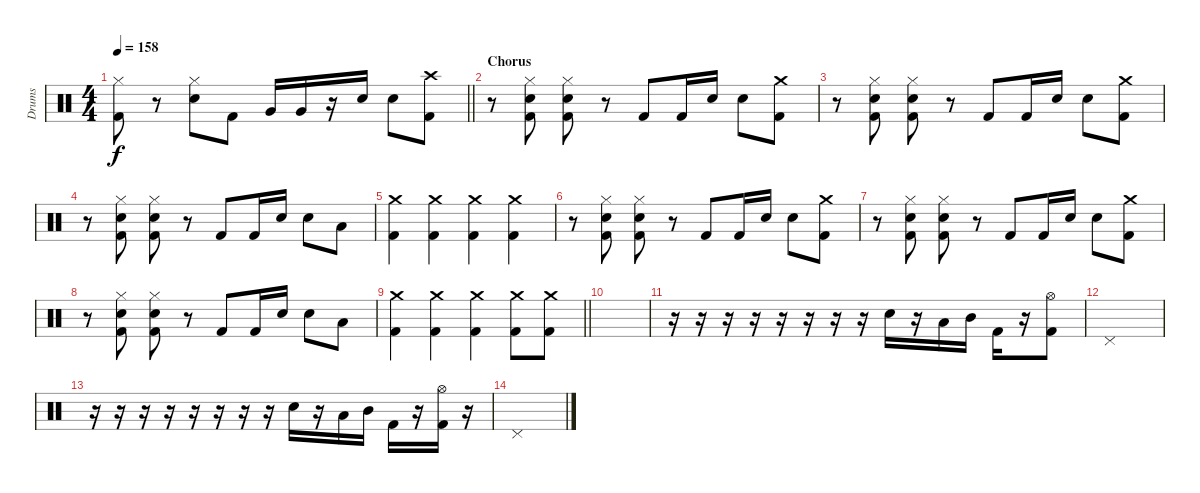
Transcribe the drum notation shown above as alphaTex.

\track ("Drums" "Drums") {instrument percussion}
\staff {score}
\articulation defaults
\ts (4 4)
\tempo 158
\clef neutral
\barLineRight lightlight
\ks c
("Hi-Hat (closed)" "Kick (hit) 2").8{dy f} r.8 ("Hi-Hat (closed)" "Snare (hit) 2").8 "Kick (hit) 2".8 "Very Low Tom (hit)".16 "Very Low Tom (hit)".16 r.16 "Snare (hit) 2".16 "Snare (hit) 2".8 ("Crash high (hit)" "Kick (hit) 2").8 |
\section ("" "Chorus")
r.8 ("Hi-Hat (closed)" "Snare (hit) 2" "Kick (hit) 2").8 ("Hi-Hat (closed)" "Snare (hit) 2" "Kick (hit) 2").8 r.8 "Kick (hit) 2".8 "Kick (hit) 2".16 "Snare (hit) 2".16 "Snare (hit) 2".8 ("Crash medium (hit)" "Kick (hit) 2").8 |
r.8 ("Hi-Hat (closed)" "Snare (hit) 2" "Kick (hit) 2").8 ("Hi-Hat (closed)" "Snare (hit) 2" "Kick (hit) 2").8 r.8 "Kick (hit) 2".8 "Kick (hit) 2".16 "Snare (hit) 2".16 "Snare (hit) 2".8 ("Crash medium (hit)" "Kick (hit) 2").8 |
r.8 ("Hi-Hat (closed)" "Snare (hit) 2" "Kick (hit) 2").8 ("Hi-Hat (closed)" "Snare (hit) 2" "Kick (hit) 2").8 r.8 "Kick (hit) 2".8 "Kick (hit) 2".16 "Snare (hit) 2".16 "Snare (hit) 2".8 "Low Tom (hit)".8 |
("Crash medium (hit)" "Kick (hit) 2").4 ("Crash medium (hit)" "Kick (hit) 2").4 ("Crash medium (hit)" "Kick (hit) 2").4 ("Crash medium (hit)" "Kick (hit) 2").4 |
r.8 ("Hi-Hat (closed)" "Snare (hit) 2" "Kick (hit) 2").8 ("Hi-Hat (closed)" "Snare (hit) 2" "Kick (hit) 2").8 r.8 "Kick (hit) 2".8 "Kick (hit) 2".16 "Snare (hit) 2".16 "Snare (hit) 2".8 ("Crash medium (hit)" "Kick (hit) 2").8 |
r.8 ("Hi-Hat (closed)" "Snare (hit) 2" "Kick (hit) 2").8 ("Hi-Hat (closed)" "Snare (hit) 2" "Kick (hit) 2").8 r.8 "Kick (hit) 2".8 "Kick (hit) 2".16 "Snare (hit) 2".16 "Snare (hit) 2".8 ("Crash medium (hit)" "Kick (hit) 2").8 |
r.8 ("Hi-Hat (closed)" "Snare (hit) 2" "Kick (hit) 2").8 ("Hi-Hat (closed)" "Snare (hit) 2" "Kick (hit) 2").8 r.8 "Kick (hit) 2".8 "Kick (hit) 2".16 "Snare (hit) 2".16 "Snare (hit) 2".8 "Low Tom (hit)".8 |
\barLineRight lightlight
("Crash medium (hit)" "Kick (hit) 2").4 ("Crash medium (hit)" "Kick (hit) 2").4 ("Crash medium (hit)" "Kick (hit) 2").4 ("Crash medium (hit)" "Kick (hit) 2").8 ("Crash medium (hit)" "Kick (hit) 2").8 |
|
r.16 r.16 r.16 r.16 r.16 r.16 r.16 r.16 "Snare (hit) 2".16 r.16 "Low Tom (hit)".16 "Mid Tom (hit)".16 "Kick (hit) 2".16 r.16 ("Hi-Hat (open)" "Kick (hit) 2").8 |
"Pedal Hi-Hat (hit)".1 |
r.16 r.16 r.16 r.16 r.16 r.16 r.16 r.16 "Snare (hit) 2".16 r.16 "Low Tom (hit)".16 "Mid Tom (hit)".16 "Kick (hit) 2".16 r.16 ("Hi-Hat (open)" "Kick (hit) 2").16 r.16 |
"Pedal Hi-Hat (hit)".1
